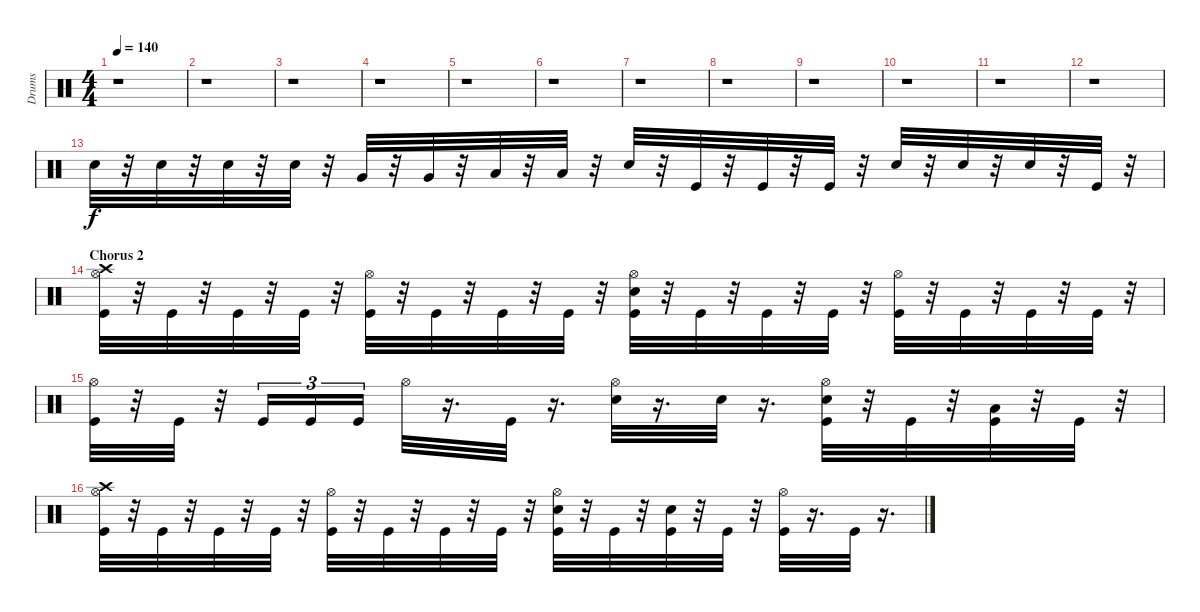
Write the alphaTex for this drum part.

\track ("Drums" "Drums") {instrument percussion}
\staff {score}
\articulation defaults
\ts (4 4)
\tempo 140
\clef neutral
\ks c
r.1{dy f} |
r.1 |
r.1 |
r.1 |
r.1 |
r.1 |
r.1 |
r.1 |
r.1 |
r.1 |
r.1 |
r.1 |
"Electric Snare (hit)".32 r.32 "Electric Snare (hit)".32 r.32 "Electric Snare (hit)".32 r.32 "Electric Snare (hit)".32 r.32 "Very Low Tom (hit)".32 r.32 "Very Low Tom (hit)".32 r.32 "Low Floor Tom (hit)".32 r.32 "Low Floor Tom (hit)".32 r.32 "Electric Snare (hit)".32 r.32 "Kick (hit)".32 r.32 "Kick (hit)".32 r.32 "Kick (hit)".32 r.32 "Electric Snare (hit)".32 r.32 "Electric Snare (hit)".32 r.32 "Electric Snare (hit)".32 r.32 "Kick (hit)".32 r.32 |
\section ("" "Chorus 2")
("Hi-Hat (open)" "Crash high (hit)" "Kick (hit)").32 r.32 "Kick (hit)".32 r.32 "Kick (hit)".32 r.32 "Kick (hit)".32 r.32 ("Hi-Hat (open)" "Kick (hit)").32 r.32 "Kick (hit)".32 r.32 "Kick (hit)".32 r.32 "Kick (hit)".32 r.32 ("Kick (hit)" "Hi-Hat (open)" "Electric Snare (hit)").32 r.32 "Kick (hit)".32 r.32 "Kick (hit)".32 r.32 "Kick (hit)".32 r.32 ("Kick (hit)" "Hi-Hat (open)").32 r.32 "Kick (hit)".32 r.32 "Kick (hit)".32 r.32 "Kick (hit)".32 r.32 |
("Hi-Hat (open)" "Kick (hit)").32 r.32 "Kick (hit)".32 r.32 "Kick (hit)".16{tu (3 2)} "Kick (hit)".16{tu (3 2)} "Kick (hit)".16{tu (3 2)} "Hi-Hat (open)".32 r.16{d} "Kick (hit)".32 r.16{d} ("Hi-Hat (open)" "Electric Snare (hit)").32 r.16{d} "Electric Snare (hit)".32 r.16{d} ("Electric Snare (hit)" "Hi-Hat (open)" "Kick (hit)").32 r.32 "Kick (hit)".32 r.32 ("Low Floor Tom (hit)" "Kick (hit)").32 r.32 "Kick (hit)".32 r.32 |
("Crash high (hit)" "Hi-Hat (open)" "Kick (hit)").32 r.32 "Kick (hit)".32 r.32 "Kick (hit)".32 r.32 "Kick (hit)".32 r.32 ("Kick (hit)" "Hi-Hat (open)").32 r.32 "Kick (hit)".32 r.32 "Kick (hit)".32 r.32 "Kick (hit)".32 r.32 ("Kick (hit)" "Hi-Hat (open)" "Electric Snare (hit)").32 r.32 "Kick (hit)".32 r.32 ("Electric Snare (hit)" "Kick (hit)").32 r.32 "Kick (hit)".32 r.32 ("Hi-Hat (open)" "Kick (hit)").32 r.16{d} "Kick (hit)".32 r.16{d}
